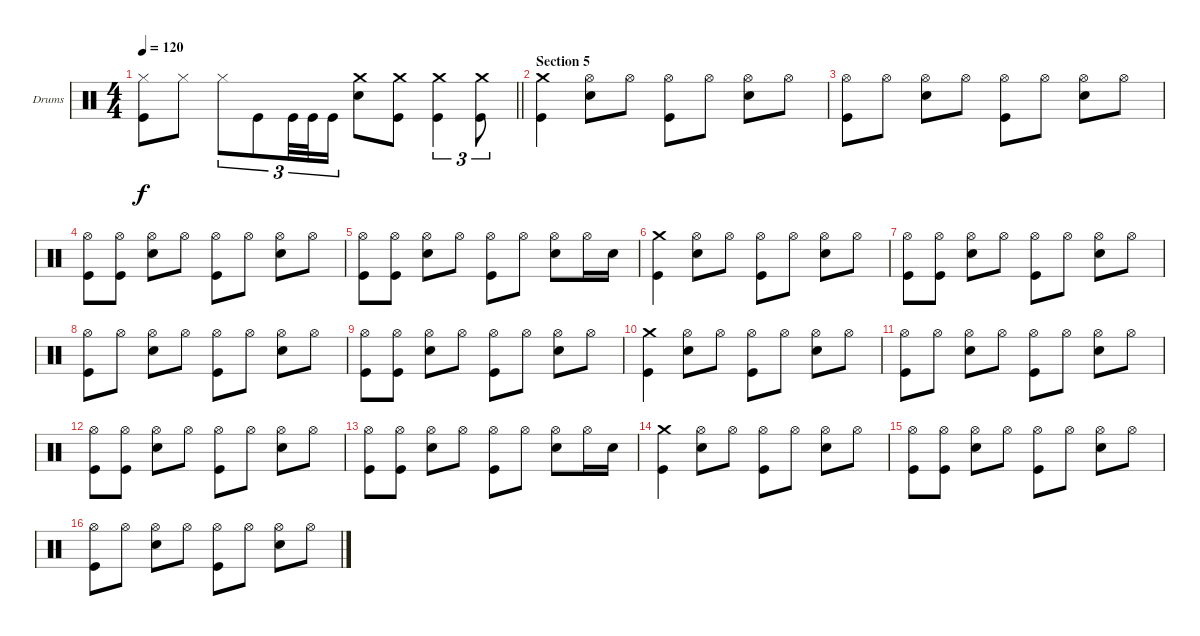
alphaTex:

\defaultSystemsLayout 4
\bracketExtendMode groupsimilarinstruments
\firstSystemTrackNameOrientation horizontal
\otherSystemsTrackNameOrientation horizontal
\track ("Drums" "Drums") {instrument percussion}
\staff {score}
\articulation defaults
\ts (4 4)
\tempo 120
\clef neutral
\barLineRight lightlight
\ks c
("Hi-Hat (closed)" "Kick (hit)").8{dy f} "Hi-Hat (closed)".8 "Hi-Hat (closed)".8{tu (3 2)} "Kick (hit)".8{tu (3 2)} "Kick (hit)".32{tu (3 2)} "Kick (hit)".32{tu (3 2)} "Kick (hit)".16{tu (3 2)} ("Snare (hit) 2" "Crash medium (hit)").8 ("Kick (hit)" "Crash medium (hit)").8 ("Kick (hit)" "Crash medium (hit)").4{tu (3 2)} ("Kick (hit)" "Crash medium (hit)").8{tu (3 2)} |
\section ("" "Section 5")
("Kick (hit)" "Crash medium (hit)").4 ("Hi-Hat (open)" "Snare (hit) 2").8 "Hi-Hat (open)".8 ("Hi-Hat (open)" "Kick (hit)").8 "Hi-Hat (open)".8 ("Hi-Hat (open)" "Snare (hit) 2").8 "Hi-Hat (open)".8 |
("Kick (hit)" "Hi-Hat (open)").8 "Hi-Hat (open)".8 ("Hi-Hat (open)" "Snare (hit) 2").8 "Hi-Hat (open)".8 ("Hi-Hat (open)" "Kick (hit)").8 "Hi-Hat (open)".8 ("Hi-Hat (open)" "Snare (hit) 2").8 "Hi-Hat (open)".8 |
("Kick (hit)" "Hi-Hat (open)").8 ("Hi-Hat (open)" "Kick (hit)").8 ("Hi-Hat (open)" "Snare (hit) 2").8 "Hi-Hat (open)".8 ("Hi-Hat (open)" "Kick (hit)").8 "Hi-Hat (open)".8 ("Hi-Hat (open)" "Snare (hit) 2").8 "Hi-Hat (open)".8 |
("Kick (hit)" "Hi-Hat (open)").8 ("Hi-Hat (open)" "Kick (hit)").8 ("Hi-Hat (open)" "Snare (hit) 2").8 "Hi-Hat (open)".8 ("Hi-Hat (open)" "Kick (hit)").8 "Hi-Hat (open)".8 ("Hi-Hat (open)" "Snare (hit) 2").8 "Hi-Hat (open)".16 "Snare (hit) 2".16 |
("Kick (hit)" "Crash medium (hit)").4 ("Hi-Hat (open)" "Snare (hit) 2").8 "Hi-Hat (open)".8 ("Hi-Hat (open)" "Kick (hit)").8 "Hi-Hat (open)".8 ("Hi-Hat (open)" "Snare (hit) 2").8 "Hi-Hat (open)".8 |
("Kick (hit)" "Hi-Hat (open)").8 ("Hi-Hat (open)" "Kick (hit)").8 ("Hi-Hat (open)" "Snare (hit) 2").8 "Hi-Hat (open)".8 ("Hi-Hat (open)" "Kick (hit)").8 "Hi-Hat (open)".8 ("Hi-Hat (open)" "Snare (hit) 2").8 "Hi-Hat (open)".8 |
("Kick (hit)" "Hi-Hat (open)").8 "Hi-Hat (open)".8 ("Hi-Hat (open)" "Snare (hit) 2").8 "Hi-Hat (open)".8 ("Hi-Hat (open)" "Kick (hit)").8 "Hi-Hat (open)".8 ("Hi-Hat (open)" "Snare (hit) 2").8 "Hi-Hat (open)".8 |
("Kick (hit)" "Hi-Hat (open)").8 ("Hi-Hat (open)" "Kick (hit)").8 ("Hi-Hat (open)" "Snare (hit) 2").8 "Hi-Hat (open)".8 ("Hi-Hat (open)" "Kick (hit)").8 "Hi-Hat (open)".8 ("Hi-Hat (open)" "Snare (hit) 2").8 "Hi-Hat (open)".8 |
("Kick (hit)" "Crash medium (hit)").4 ("Hi-Hat (open)" "Snare (hit) 2").8 "Hi-Hat (open)".8 ("Hi-Hat (open)" "Kick (hit)").8 "Hi-Hat (open)".8 ("Hi-Hat (open)" "Snare (hit) 2").8 "Hi-Hat (open)".8 |
("Kick (hit)" "Hi-Hat (open)").8 "Hi-Hat (open)".8 ("Hi-Hat (open)" "Snare (hit) 2").8 "Hi-Hat (open)".8 ("Hi-Hat (open)" "Kick (hit)").8 "Hi-Hat (open)".8 ("Hi-Hat (open)" "Snare (hit) 2").8 "Hi-Hat (open)".8 |
("Kick (hit)" "Hi-Hat (open)").8 ("Hi-Hat (open)" "Kick (hit)").8 ("Hi-Hat (open)" "Snare (hit) 2").8 "Hi-Hat (open)".8 ("Hi-Hat (open)" "Kick (hit)").8 "Hi-Hat (open)".8 ("Hi-Hat (open)" "Snare (hit) 2").8 "Hi-Hat (open)".8 |
("Kick (hit)" "Hi-Hat (open)").8 ("Hi-Hat (open)" "Kick (hit)").8 ("Hi-Hat (open)" "Snare (hit) 2").8 "Hi-Hat (open)".8 ("Hi-Hat (open)" "Kick (hit)").8 "Hi-Hat (open)".8 ("Hi-Hat (open)" "Snare (hit) 2").8 "Hi-Hat (open)".16 "Snare (hit) 2".16 |
("Kick (hit)" "Crash medium (hit)").4 ("Hi-Hat (open)" "Snare (hit) 2").8 "Hi-Hat (open)".8 ("Hi-Hat (open)" "Kick (hit)").8 "Hi-Hat (open)".8 ("Hi-Hat (open)" "Snare (hit) 2").8 "Hi-Hat (open)".8 |
("Kick (hit)" "Hi-Hat (open)").8 ("Hi-Hat (open)" "Kick (hit)").8 ("Hi-Hat (open)" "Snare (hit) 2").8 "Hi-Hat (open)".8 ("Hi-Hat (open)" "Kick (hit)").8 "Hi-Hat (open)".8 ("Hi-Hat (open)" "Snare (hit) 2").8 "Hi-Hat (open)".8 |
("Kick (hit)" "Hi-Hat (open)").8 "Hi-Hat (open)".8 ("Hi-Hat (open)" "Snare (hit) 2").8 "Hi-Hat (open)".8 ("Hi-Hat (open)" "Kick (hit)").8 "Hi-Hat (open)".8 ("Hi-Hat (open)" "Snare (hit) 2").8 "Hi-Hat (open)".8
